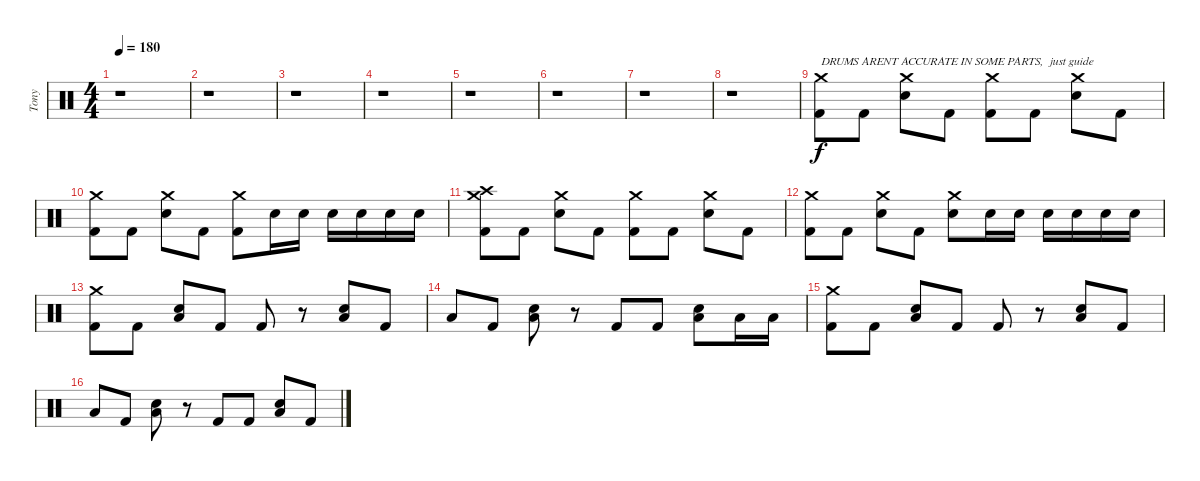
\track ("Tony" "Tony") {instrument percussion}
\staff {score}
\articulation defaults
\ts (4 4)
\tempo 180
\clef neutral
\ks c
r.1{dy f} |
r.1 |
r.1 |
r.1 |
r.1 |
r.1 |
r.1 |
r.1 |
("Crash medium (hit)" "Kick (hit) 2").8{txt "DRUMS ARENT ACCURATE IN SOME PARTS,  just guide"} "Kick (hit) 2".8 ("Crash medium (hit)" "Electric Snare (hit)").8 "Kick (hit) 2".8 ("Crash medium (hit)" "Kick (hit) 2").8 "Kick (hit) 2".8 ("Crash medium (hit)" "Electric Snare (hit)").8 "Kick (hit) 2".8 |
("Crash medium (hit)" "Kick (hit) 2").8 "Kick (hit) 2".8 ("Crash medium (hit)" "Electric Snare (hit)").8 "Kick (hit) 2".8 ("Crash medium (hit)" "Kick (hit) 2").8 "Electric Snare (hit)".16 "Electric Snare (hit)".16 "Electric Snare (hit)".16 "Electric Snare (hit)".16 "Electric Snare (hit)".16 "Electric Snare (hit)".16 |
("Crash medium (hit)" "Crash high (hit)" "Kick (hit) 2").8 "Kick (hit) 2".8 ("Crash medium (hit)" "Electric Snare (hit)").8 "Kick (hit) 2".8 ("Crash medium (hit)" "Kick (hit) 2").8 "Kick (hit) 2".8 ("Crash medium (hit)" "Electric Snare (hit)").8 "Kick (hit) 2".8 |
("Crash medium (hit)" "Kick (hit) 2").8 "Kick (hit) 2".8 ("Crash medium (hit)" "Electric Snare (hit)").8 "Kick (hit) 2".8 ("Crash medium (hit)" "Electric Snare (hit)").8 "Electric Snare (hit)".16 "Electric Snare (hit)".16 "Electric Snare (hit)".16 "Electric Snare (hit)".16 "Electric Snare (hit)".16 "Electric Snare (hit)".16 |
("Crash medium (hit)" "Kick (hit) 2").8 "Kick (hit) 2".8 ("Low Floor Tom (hit)" "Electric Snare (hit)").8 "Kick (hit) 2".8 "Kick (hit) 2".8 r.8 ("Low Floor Tom (hit)" "Electric Snare (hit)").8 "Kick (hit) 2".8 |
"Low Floor Tom (hit)".8 "Kick (hit) 2".8 ("Low Floor Tom (hit)" "Electric Snare (hit)").8 r.8 "Kick (hit) 2".8 "Kick (hit) 2".8 ("Low Floor Tom (hit)" "Electric Snare (hit)").8 "Low Tom (hit)".16 "Low Tom (hit)".16 |
("Crash medium (hit)" "Kick (hit) 2").8 "Kick (hit) 2".8 ("Low Floor Tom (hit)" "Electric Snare (hit)").8 "Kick (hit) 2".8 "Kick (hit) 2".8 r.8 ("Low Floor Tom (hit)" "Electric Snare (hit)").8 "Kick (hit) 2".8 |
"Low Floor Tom (hit)".8 "Kick (hit) 2".8 ("Low Floor Tom (hit)" "Electric Snare (hit)").8 r.8 "Kick (hit) 2".8 "Kick (hit) 2".8 ("Low Floor Tom (hit)" "Electric Snare (hit)").8 "Kick (hit) 2".8
